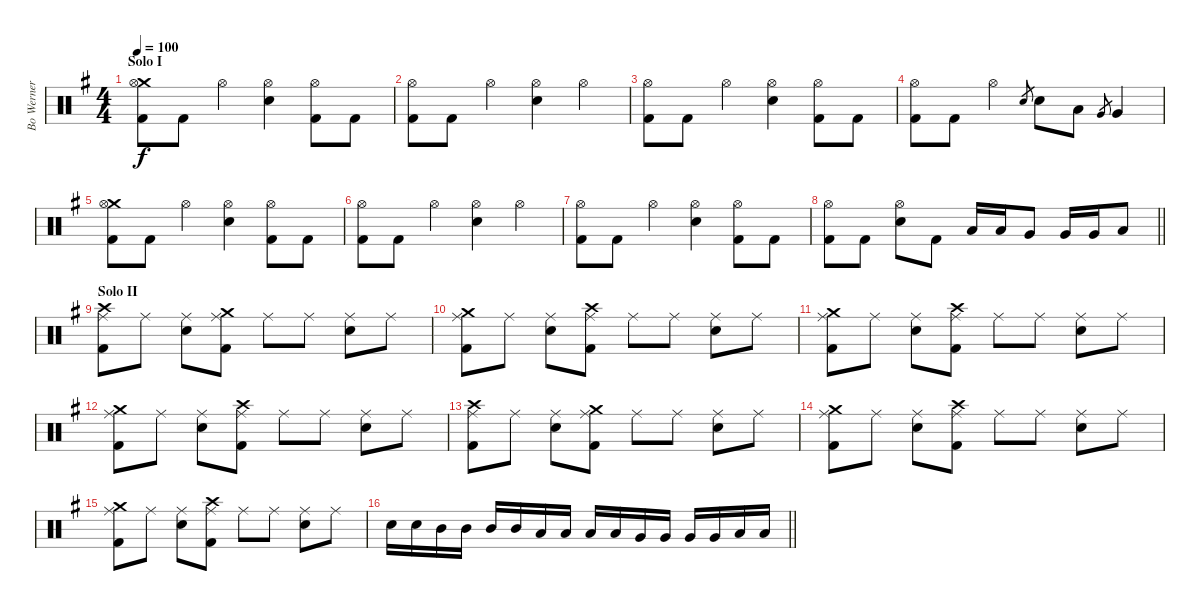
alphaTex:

\track ("Bo Werner" "Bo Werner") {instrument percussion}
\staff {score}
\articulation defaults
\ts (4 4)
\section ("" "Solo I")
\tempo 100
\clef neutral
\ks g
("Crash medium (hit)" "Hi-Hat (open)" "Kick (hit) 2").8{dy f} "Kick (hit) 2".8 "Hi-Hat (open)".4 ("Hi-Hat (open)" "Snare (hit) 2").4 ("Hi-Hat (open)" "Kick (hit) 2").8 "Kick (hit) 2".8 |
("Hi-Hat (open)" "Kick (hit) 2").8 "Kick (hit) 2".8 "Hi-Hat (open)".4 ("Hi-Hat (open)" "Snare (hit) 2").4 "Hi-Hat (open)".4 |
("Hi-Hat (open)" "Kick (hit) 2").8 "Kick (hit) 2".8 "Hi-Hat (open)".4 ("Hi-Hat (open)" "Snare (hit) 2").4 ("Hi-Hat (open)" "Kick (hit) 2").8 "Kick (hit) 2".8 |
("Hi-Hat (open)" "Kick (hit) 2").8 "Kick (hit) 2".8 "Hi-Hat (open)".4 "Snare (hit) 2".8{gr} "Snare (hit) 2".8 "Low Tom (hit)".8 "Very Low Tom (hit)".8{gr} "Very Low Tom (hit)".4 |
("Crash medium (hit)" "Hi-Hat (open)" "Kick (hit) 2").8 "Kick (hit) 2".8 "Hi-Hat (open)".4 ("Hi-Hat (open)" "Snare (hit) 2").4 ("Hi-Hat (open)" "Kick (hit) 2").8 "Kick (hit) 2".8 |
("Hi-Hat (open)" "Kick (hit) 2").8 "Kick (hit) 2".8 "Hi-Hat (open)".4 ("Hi-Hat (open)" "Snare (hit) 2").4 "Hi-Hat (open)".4 |
("Hi-Hat (open)" "Kick (hit) 2").8 "Kick (hit) 2".8 "Hi-Hat (open)".4 ("Hi-Hat (open)" "Snare (hit) 2").4 ("Hi-Hat (open)" "Kick (hit) 2").8 "Kick (hit) 2".8 |
\barLineRight lightlight
("Hi-Hat (open)" "Kick (hit) 2").8 "Kick (hit) 2".8 ("Hi-Hat (open)" "Snare (hit) 2").8 "Kick (hit) 2".8 "Low Tom (hit)".16 "Low Tom (hit)".16 "Very Low Tom (hit)".8 "Very Low Tom (hit)".16 "Very Low Tom (hit)".16 "Low Floor Tom (hit)".8 |
\section ("" "Solo II")
("Crash high (hit)" "Ride (middle)" "Kick (hit) 2").8 "Ride (middle)".8 ("Ride (middle)" "Snare (hit) 2").8 ("Crash medium (hit)" "Ride (middle)" "Kick (hit) 2").8 "Ride (middle)".8 "Ride (middle)".8 ("Ride (middle)" "Snare (hit) 2").8 "Ride (middle)".8 |
("Crash medium (hit)" "Ride (middle)" "Kick (hit) 2").8 "Ride (middle)".8 ("Ride (middle)" "Snare (hit) 2").8 ("Crash high (hit)" "Ride (middle)" "Kick (hit) 2").8 "Ride (middle)".8 "Ride (middle)".8 ("Ride (middle)" "Snare (hit) 2").8 "Ride (middle)".8 |
("Crash medium (hit)" "Ride (middle)" "Kick (hit) 2").8 "Ride (middle)".8 ("Ride (middle)" "Snare (hit) 2").8 ("Crash high (hit)" "Ride (middle)" "Kick (hit) 2").8 "Ride (middle)".8 "Ride (middle)".8 ("Ride (middle)" "Snare (hit) 2").8 "Ride (middle)".8 |
("Crash medium (hit)" "Ride (middle)" "Kick (hit) 2").8 "Ride (middle)".8 ("Ride (middle)" "Snare (hit) 2").8 ("Crash high (hit)" "Ride (middle)" "Kick (hit) 2").8 "Ride (middle)".8 "Ride (middle)".8 ("Ride (middle)" "Snare (hit) 2").8 "Ride (middle)".8 |
("Crash high (hit)" "Ride (middle)" "Kick (hit) 2").8 "Ride (middle)".8 ("Ride (middle)" "Snare (hit) 2").8 ("Crash medium (hit)" "Ride (middle)" "Kick (hit) 2").8 "Ride (middle)".8 "Ride (middle)".8 ("Ride (middle)" "Snare (hit) 2").8 "Ride (middle)".8 |
("Crash medium (hit)" "Ride (middle)" "Kick (hit) 2").8 "Ride (middle)".8 ("Ride (middle)" "Snare (hit) 2").8 ("Crash high (hit)" "Ride (middle)" "Kick (hit) 2").8 "Ride (middle)".8 "Ride (middle)".8 ("Ride (middle)" "Snare (hit) 2").8 "Ride (middle)".8 |
("Crash medium (hit)" "Ride (middle)" "Kick (hit) 2").8 "Ride (middle)".8 ("Ride (middle)" "Snare (hit) 2").8 ("Crash high (hit)" "Ride (middle)" "Kick (hit) 2").8 "Ride (middle)".8 "Ride (middle)".8 ("Ride (middle)" "Snare (hit) 2").8 "Ride (middle)".8 |
\barLineRight lightlight "Snare (hit) 2".16 "Snare (hit) 2".16 "Mid Tom (hit)".16 "Mid Tom (hit)".16 "Mid Tom (hit)".16 "Mid Tom (hit)".16 "Low Tom (hit)".16 "Low Tom (hit)".16 "Low Tom (hit)".16 "Low Tom (hit)".16 "Very Low Tom (hit)".16 "Very Low Tom (hit)".16 "Very Low Tom (hit)".16 "Very Low Tom (hit)".16 "Low Floor Tom (hit)".16 "Low Floor Tom (hit)".16
